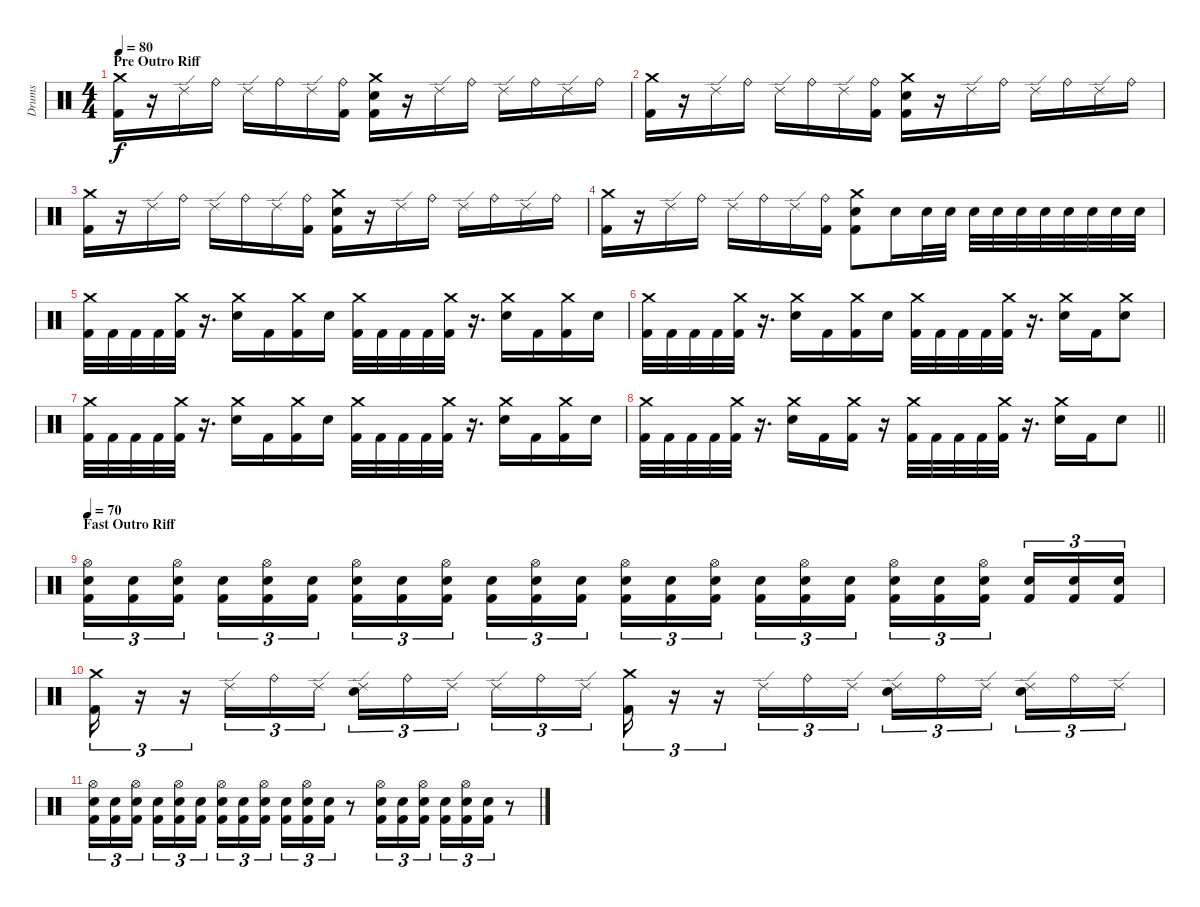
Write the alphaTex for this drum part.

\track ("Drums" "Drums") {instrument percussion}
\staff {score}
\articulation defaults
\ts (4 4)
\section ("" "Pre Outro Riff")
\tempo 80
\clef neutral
\ks c
("Crash medium (hit)" "Kick (hit) 2").16{dy f} r.16 "Ride (edge) 2".16 "Ride (bell)".16 "Ride (edge) 2".16 "Ride (bell)".16 "Ride (edge) 2".16 ("Ride (bell)" "Kick (hit) 2").16 ("Crash medium (hit)" "Snare (hit) 2" "Kick (hit) 2").16 r.16 "Ride (edge) 2".16 "Ride (bell)".16 "Ride (edge) 2".16 "Ride (bell)".16 "Ride (edge) 2".16 "Ride (bell)".16 |
("Crash medium (hit)" "Kick (hit) 2").16 r.16 "Ride (edge) 2".16 "Ride (bell)".16 "Ride (edge) 2".16 "Ride (bell)".16 "Ride (edge) 2".16 ("Ride (bell)" "Kick (hit) 2").16 ("Crash medium (hit)" "Snare (hit) 2" "Kick (hit) 2").16 r.16 "Ride (edge) 2".16 "Ride (bell)".16 "Ride (edge) 2".16 "Ride (bell)".16 "Ride (edge) 2".16 "Ride (bell)".16 |
("Crash medium (hit)" "Kick (hit) 2").16 r.16 "Ride (edge) 2".16 "Ride (bell)".16 "Ride (edge) 2".16 "Ride (bell)".16 "Ride (edge) 2".16 ("Ride (bell)" "Kick (hit) 2").16 ("Crash medium (hit)" "Snare (hit) 2" "Kick (hit) 2").16 r.16 "Ride (edge) 2".16 "Ride (bell)".16 "Ride (edge) 2".16 "Ride (bell)".16 "Ride (edge) 2".16 "Ride (bell)".16 |
("Crash medium (hit)" "Kick (hit) 2").16 r.16 "Ride (edge) 2".16 "Ride (bell)".16 "Ride (edge) 2".16 "Ride (bell)".16 "Ride (edge) 2".16 ("Ride (bell)" "Kick (hit) 2").16 ("Crash medium (hit)" "Snare (hit) 2" "Kick (hit) 2").8 "Snare (hit) 2".16 "Snare (hit) 2".32 "Snare (hit) 2".32 "Snare (hit) 2".32 "Snare (hit) 2".32 "Snare (hit) 2".32 "Snare (hit) 2".32 "Snare (hit) 2".32 "Snare (hit) 2".32 "Snare (hit) 2".32 "Snare (hit) 2".32 |
("Crash medium (hit)" "Kick (hit) 2").32 "Kick (hit) 2".32 "Kick (hit) 2".32 "Kick (hit) 2".32 ("Crash medium (hit)" "Kick (hit) 2").32 r.16{d} ("Crash medium (hit)" "Snare (hit) 2").16 "Kick (hit) 2".16 ("Crash medium (hit)" "Kick (hit) 2").16 "Snare (hit) 2".16 ("Crash medium (hit)" "Kick (hit) 2").32 "Kick (hit) 2".32 "Kick (hit) 2".32 "Kick (hit) 2".32 ("Crash medium (hit)" "Kick (hit) 2").32 r.16{d} ("Crash medium (hit)" "Snare (hit) 2").16 "Kick (hit) 2".16 ("Crash medium (hit)" "Kick (hit) 2").16 "Snare (hit) 2".16 |
("Crash medium (hit)" "Kick (hit) 2").32 "Kick (hit) 2".32 "Kick (hit) 2".32 "Kick (hit) 2".32 ("Crash medium (hit)" "Kick (hit) 2").32 r.16{d} ("Crash medium (hit)" "Snare (hit) 2").16 "Kick (hit) 2".16 ("Crash medium (hit)" "Kick (hit) 2").16 "Snare (hit) 2".16 ("Crash medium (hit)" "Kick (hit) 2").32 "Kick (hit) 2".32 "Kick (hit) 2".32 "Kick (hit) 2".32 ("Crash medium (hit)" "Kick (hit) 2").32 r.16{d} ("Crash medium (hit)" "Snare (hit) 2").16 "Kick (hit) 2".16 ("Crash medium (hit)" "Snare (hit) 2").8 |
("Crash medium (hit)" "Kick (hit) 2").32 "Kick (hit) 2".32 "Kick (hit) 2".32 "Kick (hit) 2".32 ("Crash medium (hit)" "Kick (hit) 2").32 r.16{d} ("Crash medium (hit)" "Snare (hit) 2").16 "Kick (hit) 2".16 ("Crash medium (hit)" "Kick (hit) 2").16 "Snare (hit) 2".16 ("Crash medium (hit)" "Kick (hit) 2").32 "Kick (hit) 2".32 "Kick (hit) 2".32 "Kick (hit) 2".32 ("Crash medium (hit)" "Kick (hit) 2").32 r.16{d} ("Crash medium (hit)" "Snare (hit) 2").16 "Kick (hit) 2".16 ("Crash medium (hit)" "Kick (hit) 2").16 "Snare (hit) 2".16 |
\barLineRight lightlight
("Crash medium (hit)" "Kick (hit) 2").32 "Kick (hit) 2".32 "Kick (hit) 2".32 "Kick (hit) 2".32 ("Crash medium (hit)" "Kick (hit) 2").32 r.16{d} ("Crash medium (hit)" "Snare (hit) 2").16 "Kick (hit) 2".16 ("Crash medium (hit)" "Kick (hit) 2").16 r.16 ("Crash medium (hit)" "Kick (hit) 2").32 "Kick (hit) 2".32 "Kick (hit) 2".32 "Kick (hit) 2".32 ("Crash medium (hit)" "Kick (hit) 2").32 r.16{d} ("Crash medium (hit)" "Snare (hit) 2").16 "Kick (hit) 2".16 "Snare (hit) 2".8 |
\section ("" "Fast Outro Riff")
\tempo 70
("Hi-Hat (open)" "Snare (hit) 2" "Kick (hit) 2").16{tu (3 2)} ("Snare (hit) 2" "Kick (hit) 2").16{tu (3 2)} ("Hi-Hat (open)" "Snare (hit) 2" "Kick (hit) 2").16{tu (3 2) beam splitsecondary} ("Snare (hit) 2" "Kick (hit) 2").16{tu (3 2)} ("Hi-Hat (open)" "Snare (hit) 2" "Kick (hit) 2").16{tu (3 2)} ("Snare (hit) 2" "Kick (hit) 2").16{tu (3 2)} ("Hi-Hat (open)" "Snare (hit) 2" "Kick (hit) 2").16{tu (3 2)} ("Snare (hit) 2" "Kick (hit) 2").16{tu (3 2)} ("Hi-Hat (open)" "Snare (hit) 2" "Kick (hit) 2").16{tu (3 2) beam splitsecondary} ("Snare (hit) 2" "Kick (hit) 2").16{tu (3 2)} ("Hi-Hat (open)" "Snare (hit) 2" "Kick (hit) 2").16{tu (3 2)} ("Snare (hit) 2" "Kick (hit) 2").16{tu (3 2)} ("Hi-Hat (open)" "Snare (hit) 2" "Kick (hit) 2").16{tu (3 2)} ("Snare (hit) 2" "Kick (hit) 2").16{tu (3 2)} ("Hi-Hat (open)" "Snare (hit) 2" "Kick (hit) 2").16{tu (3 2) beam splitsecondary} ("Snare (hit) 2" "Kick (hit) 2").16{tu (3 2)} ("Hi-Hat (open)" "Snare (hit) 2" "Kick (hit) 2").16{tu (3 2)} ("Snare (hit) 2" "Kick (hit) 2").16{tu (3 2)} ("Hi-Hat (open)" "Snare (hit) 2" "Kick (hit) 2").16{tu (3 2)} ("Snare (hit) 2" "Kick (hit) 2").16{tu (3 2)} ("Hi-Hat (open)" "Snare (hit) 2" "Kick (hit) 2").16{tu (3 2) beam splitsecondary} ("Snare (hit) 2" "Kick (hit) 2").16{tu (3 2)} ("Snare (hit) 2" "Kick (hit) 2").16{tu (3 2)} ("Snare (hit) 2" "Kick (hit) 2").16{tu (3 2)} |
("Crash medium (hit)" "Kick (hit) 2").16{tu (3 2)} r.16{tu (3 2)} r.16{tu (3 2)} "Ride (edge) 2".16{tu (3 2)} "Ride (bell)".16{tu (3 2)} "Ride (edge) 2".16{tu (3 2)} ("Ride (edge) 2" "Snare (hit) 2").16{tu (3 2)} "Ride (bell)".16{tu (3 2)} "Ride (edge) 2".16{tu (3 2) beam splitsecondary} "Ride (edge) 2".16{tu (3 2)} "Ride (bell)".16{tu (3 2)} "Ride (edge) 2".16{tu (3 2)} ("Crash medium (hit)" "Kick (hit) 2").16{tu (3 2)} r.16{tu (3 2)} r.16{tu (3 2)} "Ride (edge) 2".16{tu (3 2)} "Ride (bell)".16{tu (3 2)} "Ride (edge) 2".16{tu (3 2)} ("Ride (edge) 2" "Snare (hit) 2").16{tu (3 2)} "Ride (bell)".16{tu (3 2)} "Ride (edge) 2".16{tu (3 2) beam splitsecondary} ("Ride (edge) 2" "Snare (hit) 2").16{tu (3 2)} "Ride (bell)".16{tu (3 2)} "Ride (edge) 2".16{tu (3 2)} |
("Hi-Hat (open)" "Snare (hit) 2" "Kick (hit) 2").16{tu (3 2)} ("Snare (hit) 2" "Kick (hit) 2").16{tu (3 2)} ("Hi-Hat (open)" "Snare (hit) 2" "Kick (hit) 2").16{tu (3 2) beam splitsecondary} ("Snare (hit) 2" "Kick (hit) 2").16{tu (3 2)} ("Hi-Hat (open)" "Snare (hit) 2" "Kick (hit) 2").16{tu (3 2)} ("Snare (hit) 2" "Kick (hit) 2").16{tu (3 2)} ("Hi-Hat (open)" "Snare (hit) 2" "Kick (hit) 2").16{tu (3 2)} ("Snare (hit) 2" "Kick (hit) 2").16{tu (3 2)} ("Hi-Hat (open)" "Snare (hit) 2" "Kick (hit) 2").16{tu (3 2) beam splitsecondary} ("Snare (hit) 2" "Kick (hit) 2").16{tu (3 2)} ("Hi-Hat (open)" "Snare (hit) 2" "Kick (hit) 2").16{tu (3 2)} ("Snare (hit) 2" "Kick (hit) 2").16{tu (3 2)} r.8 ("Hi-Hat (open)" "Snare (hit) 2" "Kick (hit) 2").16{tu (3 2)} ("Snare (hit) 2" "Kick (hit) 2").16{tu (3 2)} ("Hi-Hat (open)" "Snare (hit) 2" "Kick (hit) 2").16{tu (3 2)} ("Snare (hit) 2" "Kick (hit) 2").16{tu (3 2)} ("Hi-Hat (open)" "Snare (hit) 2" "Kick (hit) 2").16{tu (3 2)} ("Snare (hit) 2" "Kick (hit) 2").16{tu (3 2)} r.8
